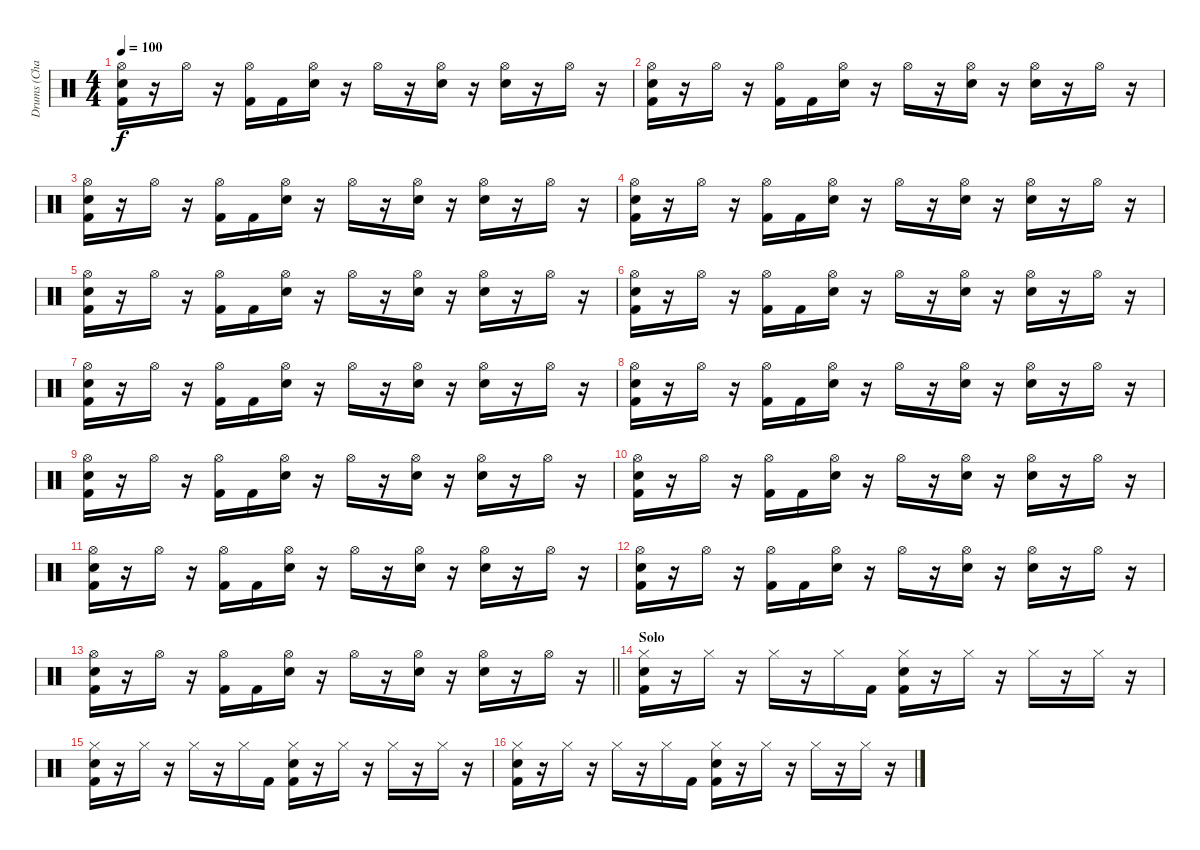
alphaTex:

\track ("Drums (Chad Smith)" "Drums (Cha") {instrument percussion}
\staff {score}
\articulation defaults
\ts (4 4)
\tempo 100
\clef neutral
\ks c
("Hi-Hat (open)" "Electric Snare (hit)" "Kick (hit) 2").16{dy f} r.16 "Hi-Hat (open)".16 r.16 ("Hi-Hat (open)" "Kick (hit) 2").16 "Kick (hit) 2".16 ("Hi-Hat (open)" "Electric Snare (hit)").16 r.16 "Hi-Hat (open)".16 r.16 ("Hi-Hat (open)" "Electric Snare (hit)").16 r.16 ("Hi-Hat (open)" "Electric Snare (hit)").16 r.16 "Hi-Hat (open)".16 r.16 |
("Hi-Hat (open)" "Electric Snare (hit)" "Kick (hit) 2").16 r.16 "Hi-Hat (open)".16 r.16 ("Hi-Hat (open)" "Kick (hit) 2").16 "Kick (hit) 2".16 ("Hi-Hat (open)" "Electric Snare (hit)").16 r.16 "Hi-Hat (open)".16 r.16 ("Hi-Hat (open)" "Electric Snare (hit)").16 r.16 ("Hi-Hat (open)" "Electric Snare (hit)").16 r.16 "Hi-Hat (open)".16 r.16 |
("Hi-Hat (open)" "Electric Snare (hit)" "Kick (hit) 2").16 r.16 "Hi-Hat (open)".16 r.16 ("Hi-Hat (open)" "Kick (hit) 2").16 "Kick (hit) 2".16 ("Hi-Hat (open)" "Electric Snare (hit)").16 r.16 "Hi-Hat (open)".16 r.16 ("Hi-Hat (open)" "Electric Snare (hit)").16 r.16 ("Hi-Hat (open)" "Electric Snare (hit)").16 r.16 "Hi-Hat (open)".16 r.16 |
("Hi-Hat (open)" "Electric Snare (hit)" "Kick (hit) 2").16 r.16 "Hi-Hat (open)".16 r.16 ("Hi-Hat (open)" "Kick (hit) 2").16 "Kick (hit) 2".16 ("Hi-Hat (open)" "Electric Snare (hit)").16 r.16 "Hi-Hat (open)".16 r.16 ("Hi-Hat (open)" "Electric Snare (hit)").16 r.16 ("Hi-Hat (open)" "Electric Snare (hit)").16 r.16 "Hi-Hat (open)".16 r.16 |
("Hi-Hat (open)" "Electric Snare (hit)" "Kick (hit) 2").16 r.16 "Hi-Hat (open)".16 r.16 ("Hi-Hat (open)" "Kick (hit) 2").16 "Kick (hit) 2".16 ("Hi-Hat (open)" "Electric Snare (hit)").16 r.16 "Hi-Hat (open)".16 r.16 ("Hi-Hat (open)" "Electric Snare (hit)").16 r.16 ("Hi-Hat (open)" "Electric Snare (hit)").16 r.16 "Hi-Hat (open)".16 r.16 |
("Hi-Hat (open)" "Electric Snare (hit)" "Kick (hit) 2").16 r.16 "Hi-Hat (open)".16 r.16 ("Hi-Hat (open)" "Kick (hit) 2").16 "Kick (hit) 2".16 ("Hi-Hat (open)" "Electric Snare (hit)").16 r.16 "Hi-Hat (open)".16 r.16 ("Hi-Hat (open)" "Electric Snare (hit)").16 r.16 ("Hi-Hat (open)" "Electric Snare (hit)").16 r.16 "Hi-Hat (open)".16 r.16 |
("Hi-Hat (open)" "Electric Snare (hit)" "Kick (hit) 2").16 r.16 "Hi-Hat (open)".16 r.16 ("Hi-Hat (open)" "Kick (hit) 2").16 "Kick (hit) 2".16 ("Hi-Hat (open)" "Electric Snare (hit)").16 r.16 "Hi-Hat (open)".16 r.16 ("Hi-Hat (open)" "Electric Snare (hit)").16 r.16 ("Hi-Hat (open)" "Electric Snare (hit)").16 r.16 "Hi-Hat (open)".16 r.16 |
("Hi-Hat (open)" "Electric Snare (hit)" "Kick (hit) 2").16 r.16 "Hi-Hat (open)".16 r.16 ("Hi-Hat (open)" "Kick (hit) 2").16 "Kick (hit) 2".16 ("Hi-Hat (open)" "Electric Snare (hit)").16 r.16 "Hi-Hat (open)".16 r.16 ("Hi-Hat (open)" "Electric Snare (hit)").16 r.16 ("Hi-Hat (open)" "Electric Snare (hit)").16 r.16 "Hi-Hat (open)".16 r.16 |
("Hi-Hat (open)" "Electric Snare (hit)" "Kick (hit) 2").16 r.16 "Hi-Hat (open)".16 r.16 ("Hi-Hat (open)" "Kick (hit) 2").16 "Kick (hit) 2".16 ("Hi-Hat (open)" "Electric Snare (hit)").16 r.16 "Hi-Hat (open)".16 r.16 ("Hi-Hat (open)" "Electric Snare (hit)").16 r.16 ("Hi-Hat (open)" "Electric Snare (hit)").16 r.16 "Hi-Hat (open)".16 r.16 |
("Hi-Hat (open)" "Electric Snare (hit)" "Kick (hit) 2").16 r.16 "Hi-Hat (open)".16 r.16 ("Hi-Hat (open)" "Kick (hit) 2").16 "Kick (hit) 2".16 ("Hi-Hat (open)" "Electric Snare (hit)").16 r.16 "Hi-Hat (open)".16 r.16 ("Hi-Hat (open)" "Electric Snare (hit)").16 r.16 ("Hi-Hat (open)" "Electric Snare (hit)").16 r.16 "Hi-Hat (open)".16 r.16 |
("Hi-Hat (open)" "Electric Snare (hit)" "Kick (hit) 2").16 r.16 "Hi-Hat (open)".16 r.16 ("Hi-Hat (open)" "Kick (hit) 2").16 "Kick (hit) 2".16 ("Hi-Hat (open)" "Electric Snare (hit)").16 r.16 "Hi-Hat (open)".16 r.16 ("Hi-Hat (open)" "Electric Snare (hit)").16 r.16 ("Hi-Hat (open)" "Electric Snare (hit)").16 r.16 "Hi-Hat (open)".16 r.16 |
("Hi-Hat (open)" "Electric Snare (hit)" "Kick (hit) 2").16 r.16 "Hi-Hat (open)".16 r.16 ("Hi-Hat (open)" "Kick (hit) 2").16 "Kick (hit) 2".16 ("Hi-Hat (open)" "Electric Snare (hit)").16 r.16 "Hi-Hat (open)".16 r.16 ("Hi-Hat (open)" "Electric Snare (hit)").16 r.16 ("Hi-Hat (open)" "Electric Snare (hit)").16 r.16 "Hi-Hat (open)".16 r.16 |
\barLineRight lightlight
("Hi-Hat (open)" "Electric Snare (hit)" "Kick (hit) 2").16 r.16 "Hi-Hat (open)".16 r.16 ("Hi-Hat (open)" "Kick (hit) 2").16 "Kick (hit) 2".16 ("Hi-Hat (open)" "Electric Snare (hit)").16 r.16 "Hi-Hat (open)".16 r.16 ("Hi-Hat (open)" "Electric Snare (hit)").16 r.16 ("Hi-Hat (open)" "Electric Snare (hit)").16 r.16 "Hi-Hat (open)".16 r.16 |
\section ("" "Solo")
("Hi-Hat (closed)" "Electric Snare (hit)" "Kick (hit) 2").16 r.16 "Hi-Hat (closed)".16 r.16 "Hi-Hat (closed)".16 r.16 "Hi-Hat (closed)".16 "Kick (hit) 2".16 ("Hi-Hat (closed)" "Electric Snare (hit)" "Kick (hit) 2").16 r.16 "Hi-Hat (closed)".16 r.16 "Hi-Hat (closed)".16 r.16 "Hi-Hat (closed)".16 r.16 |
("Hi-Hat (closed)" "Electric Snare (hit)" "Kick (hit) 2").16 r.16 "Hi-Hat (closed)".16 r.16 "Hi-Hat (closed)".16 r.16 "Hi-Hat (closed)".16 "Kick (hit) 2".16 ("Hi-Hat (closed)" "Electric Snare (hit)" "Kick (hit) 2").16 r.16 "Hi-Hat (closed)".16 r.16 "Hi-Hat (closed)".16 r.16 "Hi-Hat (closed)".16 r.16 |
("Hi-Hat (closed)" "Electric Snare (hit)" "Kick (hit) 2").16 r.16 "Hi-Hat (closed)".16 r.16 "Hi-Hat (closed)".16 r.16 "Hi-Hat (closed)".16 "Kick (hit) 2".16 ("Hi-Hat (closed)" "Electric Snare (hit)" "Kick (hit) 2").16 r.16 "Hi-Hat (closed)".16 r.16 "Hi-Hat (closed)".16 r.16 "Hi-Hat (closed)".16 r.16
